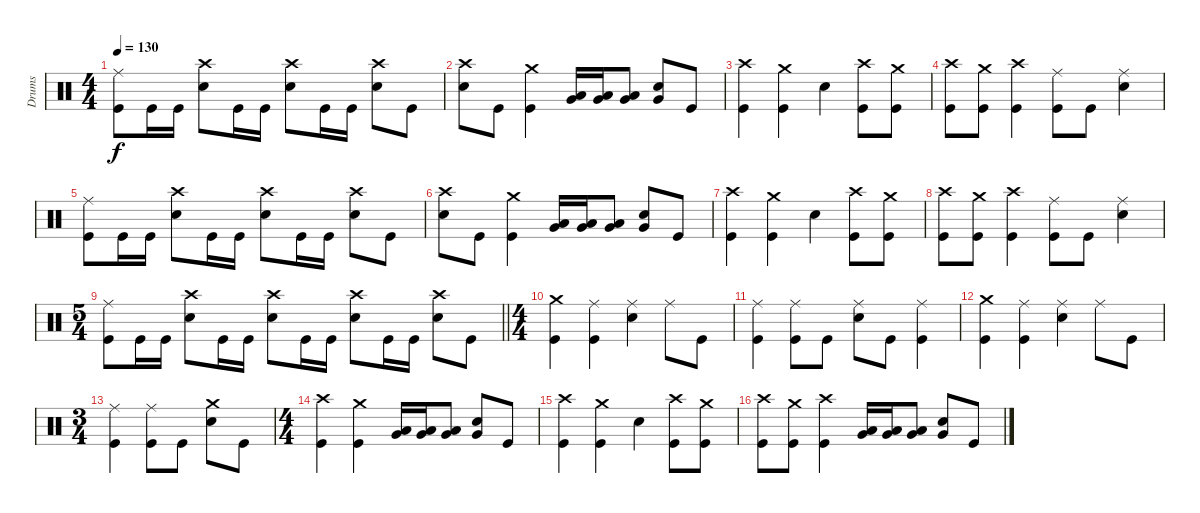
\track ("Drums" "Drums") {instrument percussion}
\staff {score}
\articulation defaults
\ts (4 4)
\tempo 130
\clef neutral
\ks c
("Ride (middle)" "Kick (hit)").8{dy f} "Kick (hit)".16 "Kick (hit)".16 ("Crash high (hit)" "Snare (hit) 2").8 "Kick (hit)".16 "Kick (hit)".16 ("Crash high (hit)" "Snare (hit) 2").8 "Kick (hit)".16 "Kick (hit)".16 ("Crash high (hit)" "Snare (hit) 2").8 "Kick (hit)".8 |
("Crash high (hit)" "Snare (hit) 2").8 "Kick (hit)".8 ("Crash medium (hit)" "Kick (hit)").4 ("Low Tom (hit)" "Very Low Tom (hit)").16 ("Low Tom (hit)" "Very Low Tom (hit)").16 ("Low Tom (hit)" "Very Low Tom (hit)").8 ("Snare (hit) 2" "Very Low Tom (hit)").8 "Kick (hit)".8 |
("Crash high (hit)" "Kick (hit)").4 ("Crash medium (hit)" "Kick (hit)").4 "Snare (hit) 2".4 ("Crash high (hit)" "Kick (hit)").8 ("Crash medium (hit)" "Kick (hit)").8 |
("Crash high (hit)" "Kick (hit)").8 ("Crash medium (hit)" "Kick (hit)").8 ("Crash high (hit)" "Kick (hit)").4 ("Ride (middle)" "Kick (hit)").8 "Kick (hit)".8 ("Ride (middle)" "Snare (hit) 2").4 |
("Ride (middle)" "Kick (hit)").8 "Kick (hit)".16 "Kick (hit)".16 ("Crash high (hit)" "Snare (hit) 2").8 "Kick (hit)".16 "Kick (hit)".16 ("Crash high (hit)" "Snare (hit) 2").8 "Kick (hit)".16 "Kick (hit)".16 ("Crash high (hit)" "Snare (hit) 2").8 "Kick (hit)".8 |
("Crash high (hit)" "Snare (hit) 2").8 "Kick (hit)".8 ("Crash medium (hit)" "Kick (hit)").4 ("Low Tom (hit)" "Very Low Tom (hit)").16 ("Low Tom (hit)" "Very Low Tom (hit)").16 ("Low Tom (hit)" "Very Low Tom (hit)").8 ("Snare (hit) 2" "Very Low Tom (hit)").8 "Kick (hit)".8 |
("Crash high (hit)" "Kick (hit)").4 ("Crash medium (hit)" "Kick (hit)").4 "Snare (hit) 2".4 ("Crash high (hit)" "Kick (hit)").8 ("Crash medium (hit)" "Kick (hit)").8 |
("Crash high (hit)" "Kick (hit)").8 ("Crash medium (hit)" "Kick (hit)").8 ("Crash high (hit)" "Kick (hit)").4 ("Ride (middle)" "Kick (hit)").8 "Kick (hit)".8 ("Ride (middle)" "Snare (hit) 2").4 |
\ts (5 4)
\barLineRight lightlight
("Ride (middle)" "Kick (hit)").8 "Kick (hit)".16 "Kick (hit)".16 ("Crash high (hit)" "Snare (hit) 2").8 "Kick (hit)".16 "Kick (hit)".16 ("Crash high (hit)" "Snare (hit) 2").8 "Kick (hit)".16 "Kick (hit)".16 ("Crash high (hit)" "Snare (hit) 2").8 "Kick (hit)".16 "Kick (hit)".16 ("Crash high (hit)" "Snare (hit) 2").8 "Kick (hit)".8 |
\ts (4 4)
("Crash medium (hit)" "Kick (hit)").4 ("Ride (middle)" "Kick (hit)").4 ("Ride (middle)" "Snare (hit) 2").4 "Ride (middle)".8 "Kick (hit)".8 |
("Ride (middle)" "Kick (hit)").4 ("Ride (middle)" "Kick (hit)").8 "Kick (hit)".8 ("Ride (middle)" "Snare (hit) 2").8 "Kick (hit)".8 ("Ride (middle)" "Kick (hit)").4 |
("Crash medium (hit)" "Kick (hit)").4 ("Ride (middle)" "Kick (hit)").4 ("Ride (middle)" "Snare (hit) 2").4 "Ride (middle)".8 "Kick (hit)".8 |
\ts (3 4)
("Ride (middle)" "Kick (hit)").4 ("Ride (middle)" "Kick (hit)").8 "Kick (hit)".8 ("Crash medium (hit)" "Snare (hit) 2").8 "Kick (hit)".8 |
\ts (4 4)
("Crash high (hit)" "Kick (hit)").4 ("Crash medium (hit)" "Kick (hit)").4 ("Low Tom (hit)" "Very Low Tom (hit)").16 ("Low Tom (hit)" "Very Low Tom (hit)").16 ("Low Tom (hit)" "Very Low Tom (hit)").8 ("Snare (hit) 2" "Very Low Tom (hit)").8 "Kick (hit)".8 |
("Crash high (hit)" "Kick (hit)").4 ("Crash medium (hit)" "Kick (hit)").4 "Snare (hit) 2".4 ("Crash high (hit)" "Kick (hit)").8 ("Crash medium (hit)" "Kick (hit)").8 |
("Crash high (hit)" "Kick (hit)").8 ("Crash medium (hit)" "Kick (hit)").8 ("Crash high (hit)" "Kick (hit)").4 ("Low Tom (hit)" "Very Low Tom (hit)").16 ("Low Tom (hit)" "Very Low Tom (hit)").16 ("Low Tom (hit)" "Very Low Tom (hit)").8 ("Snare (hit) 2" "Very Low Tom (hit)").8 "Kick (hit)".8
